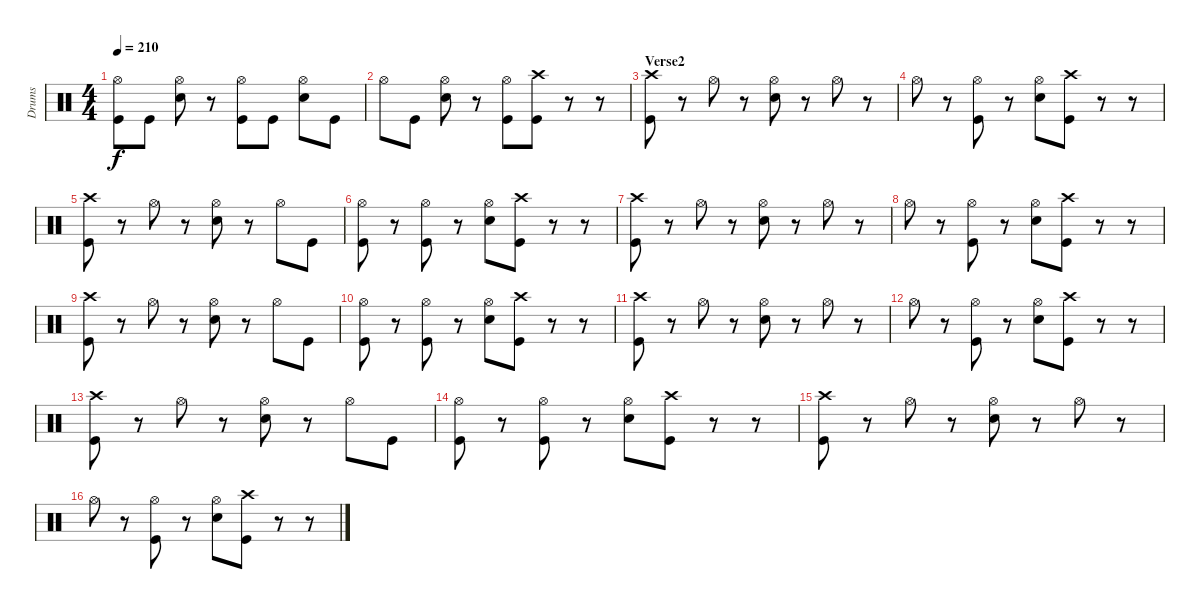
\track ("Drums" "Drums") {instrument percussion}
\staff {score}
\articulation defaults
\ts (4 4)
\tempo 210
\clef neutral
\ks c
("Hi-Hat (open)" "Kick (hit)").8{dy f} "Kick (hit)".8 ("Hi-Hat (open)" "Snare (hit) 2").8 r.8 ("Hi-Hat (open)" "Kick (hit)").8 "Kick (hit)".8 ("Hi-Hat (open)" "Snare (hit) 2").8 "Kick (hit)".8 |
"Hi-Hat (open)".8 "Kick (hit)".8 ("Hi-Hat (open)" "Snare (hit) 2").8 r.8 ("Hi-Hat (open)" "Kick (hit)").8 ("Crash high (hit)" "Kick (hit)").8 r.8 r.8 |
\section ("" "Verse2")
("Crash high (hit)" "Kick (hit)").8 r.8 "Hi-Hat (open)".8 r.8 ("Hi-Hat (open)" "Snare (hit) 2").8 r.8 "Hi-Hat (open)".8 r.8 |
"Hi-Hat (open)".8 r.8 ("Hi-Hat (open)" "Kick (hit)").8 r.8 ("Hi-Hat (open)" "Snare (hit) 2").8 ("Crash high (hit)" "Kick (hit)").8 r.8 r.8 |
("Crash high (hit)" "Kick (hit)").8 r.8 "Hi-Hat (open)".8 r.8 ("Hi-Hat (open)" "Snare (hit) 2").8 r.8 "Hi-Hat (open)".8 "Kick (hit)".8 |
("Hi-Hat (open)" "Kick (hit)").8 r.8 ("Hi-Hat (open)" "Kick (hit)").8 r.8 ("Hi-Hat (open)" "Snare (hit) 2").8 ("Crash high (hit)" "Kick (hit)").8 r.8 r.8 |
("Crash high (hit)" "Kick (hit)").8 r.8 "Hi-Hat (open)".8 r.8 ("Hi-Hat (open)" "Snare (hit) 2").8 r.8 "Hi-Hat (open)".8 r.8 |
"Hi-Hat (open)".8 r.8 ("Hi-Hat (open)" "Kick (hit)").8 r.8 ("Hi-Hat (open)" "Snare (hit) 2").8 ("Crash high (hit)" "Kick (hit)").8 r.8 r.8 |
("Crash high (hit)" "Kick (hit)").8 r.8 "Hi-Hat (open)".8 r.8 ("Hi-Hat (open)" "Snare (hit) 2").8 r.8 "Hi-Hat (open)".8 "Kick (hit)".8 |
("Hi-Hat (open)" "Kick (hit)").8 r.8 ("Hi-Hat (open)" "Kick (hit)").8 r.8 ("Hi-Hat (open)" "Snare (hit) 2").8 ("Crash high (hit)" "Kick (hit)").8 r.8 r.8 |
("Crash high (hit)" "Kick (hit)").8 r.8 "Hi-Hat (open)".8 r.8 ("Hi-Hat (open)" "Snare (hit) 2").8 r.8 "Hi-Hat (open)".8 r.8 |
"Hi-Hat (open)".8 r.8 ("Hi-Hat (open)" "Kick (hit)").8 r.8 ("Hi-Hat (open)" "Snare (hit) 2").8 ("Crash high (hit)" "Kick (hit)").8 r.8 r.8 |
("Crash high (hit)" "Kick (hit)").8 r.8 "Hi-Hat (open)".8 r.8 ("Hi-Hat (open)" "Snare (hit) 2").8 r.8 "Hi-Hat (open)".8 "Kick (hit)".8 |
("Hi-Hat (open)" "Kick (hit)").8 r.8 ("Hi-Hat (open)" "Kick (hit)").8 r.8 ("Hi-Hat (open)" "Snare (hit) 2").8 ("Crash high (hit)" "Kick (hit)").8 r.8 r.8 |
("Crash high (hit)" "Kick (hit)").8 r.8 "Hi-Hat (open)".8 r.8 ("Hi-Hat (open)" "Snare (hit) 2").8 r.8 "Hi-Hat (open)".8 r.8 |
"Hi-Hat (open)".8 r.8 ("Hi-Hat (open)" "Kick (hit)").8 r.8 ("Hi-Hat (open)" "Snare (hit) 2").8 ("Crash high (hit)" "Kick (hit)").8 r.8 r.8
